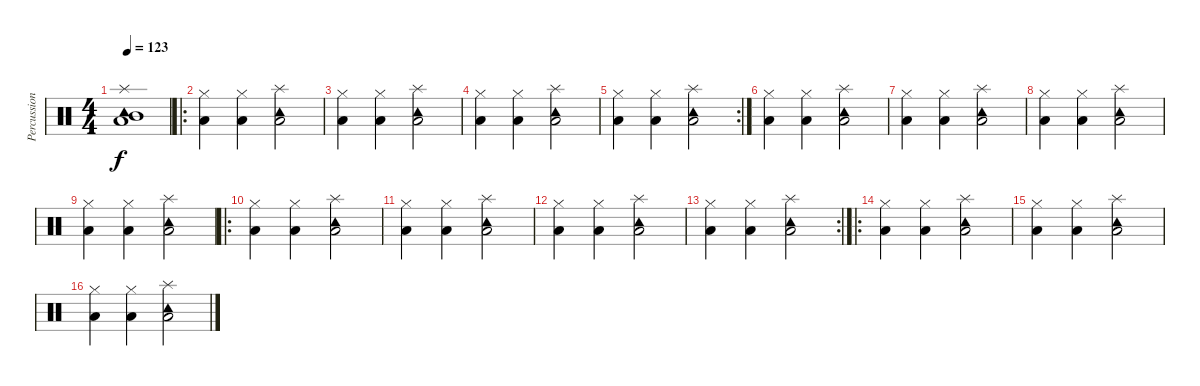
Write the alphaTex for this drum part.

\track ("Percussion" "Percussion") {instrument percussion}
\staff {score}
\articulation defaults
\ts (4 4)
\tempo 123
\clef neutral
\ks c
("Low Floor Tom (hit)" "Tambourine (hit)" "Splash (hit)" "Mid Tom (hit)").1{dy f} |
\ro
("Low Floor Tom (hit)" "Hi-Hat (closed)").4 ("Low Floor Tom (hit)" "Hi-Hat (closed)").4 ("Splash (hit)" "Low Floor Tom (hit)" "Tambourine (hit)").2 |
("Low Floor Tom (hit)" "Hi-Hat (closed)").4 ("Low Floor Tom (hit)" "Hi-Hat (closed)").4 ("Splash (hit)" "Low Floor Tom (hit)" "Tambourine (hit)").2 |
("Low Floor Tom (hit)" "Hi-Hat (closed)").4 ("Low Floor Tom (hit)" "Hi-Hat (closed)").4 ("Splash (hit)" "Low Floor Tom (hit)" "Tambourine (hit)").2 |
\rc 2
("Low Floor Tom (hit)" "Hi-Hat (closed)").4 ("Low Floor Tom (hit)" "Hi-Hat (closed)").4 ("Splash (hit)" "Low Floor Tom (hit)" "Tambourine (hit)").2 |
("Low Floor Tom (hit)" "Hi-Hat (closed)").4 ("Low Floor Tom (hit)" "Hi-Hat (closed)").4 ("Splash (hit)" "Low Floor Tom (hit)" "Tambourine (hit)").2 |
("Low Floor Tom (hit)" "Hi-Hat (closed)").4 ("Low Floor Tom (hit)" "Hi-Hat (closed)").4 ("Splash (hit)" "Low Floor Tom (hit)" "Tambourine (hit)").2 |
("Low Floor Tom (hit)" "Hi-Hat (closed)").4 ("Low Floor Tom (hit)" "Hi-Hat (closed)").4 ("Splash (hit)" "Low Floor Tom (hit)" "Tambourine (hit)").2 |
("Low Floor Tom (hit)" "Hi-Hat (closed)").4 ("Low Floor Tom (hit)" "Hi-Hat (closed)").4 ("Splash (hit)" "Low Floor Tom (hit)" "Tambourine (hit)").2 |
\ro
("Low Floor Tom (hit)" "Hi-Hat (closed)").4 ("Low Floor Tom (hit)" "Hi-Hat (closed)").4 ("Splash (hit)" "Low Floor Tom (hit)" "Tambourine (hit)").2 |
("Low Floor Tom (hit)" "Hi-Hat (closed)").4 ("Low Floor Tom (hit)" "Hi-Hat (closed)").4 ("Splash (hit)" "Low Floor Tom (hit)" "Tambourine (hit)").2 |
("Low Floor Tom (hit)" "Hi-Hat (closed)").4 ("Low Floor Tom (hit)" "Hi-Hat (closed)").4 ("Splash (hit)" "Low Floor Tom (hit)" "Tambourine (hit)").2 |
\rc 2
("Low Floor Tom (hit)" "Hi-Hat (closed)").4 ("Low Floor Tom (hit)" "Hi-Hat (closed)").4 ("Splash (hit)" "Low Floor Tom (hit)" "Tambourine (hit)").2 |
\ro
("Low Floor Tom (hit)" "Hi-Hat (closed)").4 ("Low Floor Tom (hit)" "Hi-Hat (closed)").4 ("Splash (hit)" "Low Floor Tom (hit)" "Tambourine (hit)").2 |
("Low Floor Tom (hit)" "Hi-Hat (closed)").4 ("Low Floor Tom (hit)" "Hi-Hat (closed)").4 ("Splash (hit)" "Low Floor Tom (hit)" "Tambourine (hit)").2 |
("Low Floor Tom (hit)" "Hi-Hat (closed)").4 ("Low Floor Tom (hit)" "Hi-Hat (closed)").4 ("Splash (hit)" "Low Floor Tom (hit)" "Tambourine (hit)").2
